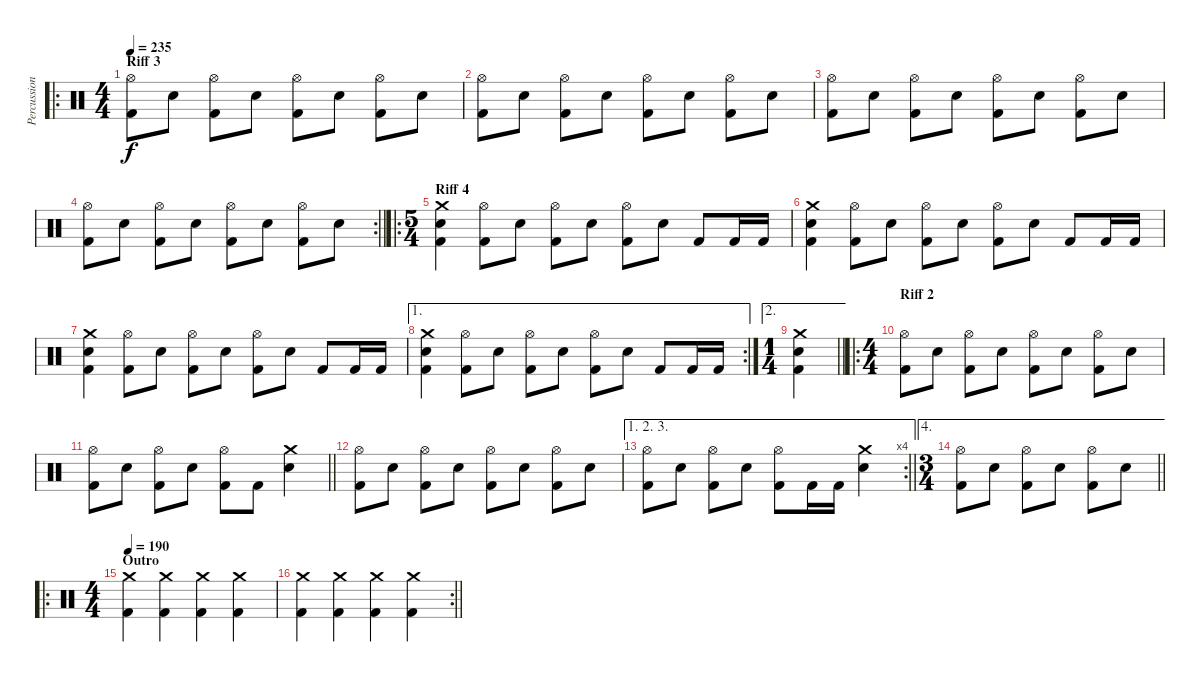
\track ("Percussion" "Percussion") {instrument percussion}
\staff {score}
\articulation defaults
\ro
\ts (4 4)
\section ("" "Riff 3")
\tempo 235
\clef neutral
\ks c
("Hi-Hat (open)" "Kick (hit) 2").8{dy f} "Electric Snare (hit)".8 ("Hi-Hat (open)" "Kick (hit) 2").8 "Electric Snare (hit)".8 ("Hi-Hat (open)" "Kick (hit) 2").8 "Electric Snare (hit)".8 ("Hi-Hat (open)" "Kick (hit) 2").8 "Electric Snare (hit)".8 |
("Hi-Hat (open)" "Kick (hit) 2").8 "Electric Snare (hit)".8 ("Hi-Hat (open)" "Kick (hit) 2").8 "Electric Snare (hit)".8 ("Hi-Hat (open)" "Kick (hit) 2").8 "Electric Snare (hit)".8 ("Hi-Hat (open)" "Kick (hit) 2").8 "Electric Snare (hit)".8 |
("Hi-Hat (open)" "Kick (hit) 2").8 "Electric Snare (hit)".8 ("Hi-Hat (open)" "Kick (hit) 2").8 "Electric Snare (hit)".8 ("Hi-Hat (open)" "Kick (hit) 2").8 "Electric Snare (hit)".8 ("Hi-Hat (open)" "Kick (hit) 2").8 "Electric Snare (hit)".8 |
\rc 2
\barLineRight lightlight
("Hi-Hat (open)" "Kick (hit) 2").8 "Electric Snare (hit)".8 ("Hi-Hat (open)" "Kick (hit) 2").8 "Electric Snare (hit)".8 ("Hi-Hat (open)" "Kick (hit) 2").8 "Electric Snare (hit)".8 ("Hi-Hat (open)" "Kick (hit) 2").8 "Electric Snare (hit)".8 |
\ro
\ts (5 4)
\section ("" "Riff 4")
("Crash medium (hit)" "Electric Snare (hit)" "Kick (hit) 2").4 ("Hi-Hat (open)" "Kick (hit) 2").8 "Electric Snare (hit)".8 ("Hi-Hat (open)" "Kick (hit) 2").8 "Electric Snare (hit)".8 ("Hi-Hat (open)" "Kick (hit) 2").8 "Electric Snare (hit)".8 "Kick (hit) 2".8 "Kick (hit) 2".16 "Kick (hit) 2".16 |
("Crash medium (hit)" "Electric Snare (hit)" "Kick (hit) 2").4 ("Hi-Hat (open)" "Kick (hit) 2").8 "Electric Snare (hit)".8 ("Hi-Hat (open)" "Kick (hit) 2").8 "Electric Snare (hit)".8 ("Hi-Hat (open)" "Kick (hit) 2").8 "Electric Snare (hit)".8 "Kick (hit) 2".8 "Kick (hit) 2".16 "Kick (hit) 2".16 |
("Crash medium (hit)" "Electric Snare (hit)" "Kick (hit) 2").4 ("Hi-Hat (open)" "Kick (hit) 2").8 "Electric Snare (hit)".8 ("Hi-Hat (open)" "Kick (hit) 2").8 "Electric Snare (hit)".8 ("Hi-Hat (open)" "Kick (hit) 2").8 "Electric Snare (hit)".8 "Kick (hit) 2".8 "Kick (hit) 2".16 "Kick (hit) 2".16 |
\ae 1
\rc 2
("Crash medium (hit)" "Electric Snare (hit)" "Kick (hit) 2").4 ("Hi-Hat (open)" "Kick (hit) 2").8 "Electric Snare (hit)".8 ("Hi-Hat (open)" "Kick (hit) 2").8 "Electric Snare (hit)".8 ("Hi-Hat (open)" "Kick (hit) 2").8 "Electric Snare (hit)".8 "Kick (hit) 2".8 "Kick (hit) 2".16 "Kick (hit) 2".16 |
\ae 2
\ts (1 4)
\barLineRight lightlight
("Crash medium (hit)" "Electric Snare (hit)" "Kick (hit) 2").4 |
\ro
\ts (4 4)
\section ("" "Riff 2")
("Hi-Hat (open)" "Kick (hit) 2").8 "Electric Snare (hit)".8 ("Hi-Hat (open)" "Kick (hit) 2").8 "Electric Snare (hit)".8 ("Hi-Hat (open)" "Kick (hit) 2").8 "Electric Snare (hit)".8 ("Hi-Hat (open)" "Kick (hit) 2").8 "Electric Snare (hit)".8 |
\barLineRight lightlight
("Hi-Hat (open)" "Kick (hit) 2").8 "Electric Snare (hit)".8 ("Hi-Hat (open)" "Kick (hit) 2").8 "Electric Snare (hit)".8 ("Hi-Hat (open)" "Kick (hit) 2").8 "Kick (hit) 2".8 ("Crash medium (hit)" "Electric Snare (hit)").4 |
("Hi-Hat (open)" "Kick (hit) 2").8 "Electric Snare (hit)".8 ("Hi-Hat (open)" "Kick (hit) 2").8 "Electric Snare (hit)".8 ("Hi-Hat (open)" "Kick (hit) 2").8 "Electric Snare (hit)".8 ("Hi-Hat (open)" "Kick (hit) 2").8 "Electric Snare (hit)".8 |
\ae (1 2 3)
\rc 4
\barLineRight lightlight
("Hi-Hat (open)" "Kick (hit) 2").8 "Electric Snare (hit)".8 ("Hi-Hat (open)" "Kick (hit) 2").8 "Electric Snare (hit)".8 ("Hi-Hat (open)" "Kick (hit) 2").8 "Kick (hit) 2".16 "Kick (hit) 2".16 ("Crash medium (hit)" "Electric Snare (hit)").4 |
\ae 4
\ts (3 4)
\barLineRight lightlight
("Hi-Hat (open)" "Kick (hit) 2").8 "Electric Snare (hit)".8 ("Hi-Hat (open)" "Kick (hit) 2").8 "Electric Snare (hit)".8 ("Hi-Hat (open)" "Kick (hit) 2").8 "Electric Snare (hit)".8 |
\ro
\ts (4 4)
\section ("" "Outro")
\tempo 190
("Crash medium (hit)" "Kick (hit) 2").4 ("Crash medium (hit)" "Kick (hit) 2").4 ("Crash medium (hit)" "Kick (hit) 2").4 ("Crash medium (hit)" "Kick (hit) 2").4 |
\rc 2
\barLineRight lightlight
("Crash medium (hit)" "Kick (hit) 2").4 ("Crash medium (hit)" "Kick (hit) 2").4 ("Crash medium (hit)" "Kick (hit) 2").4 ("Crash medium (hit)" "Kick (hit) 2").4
